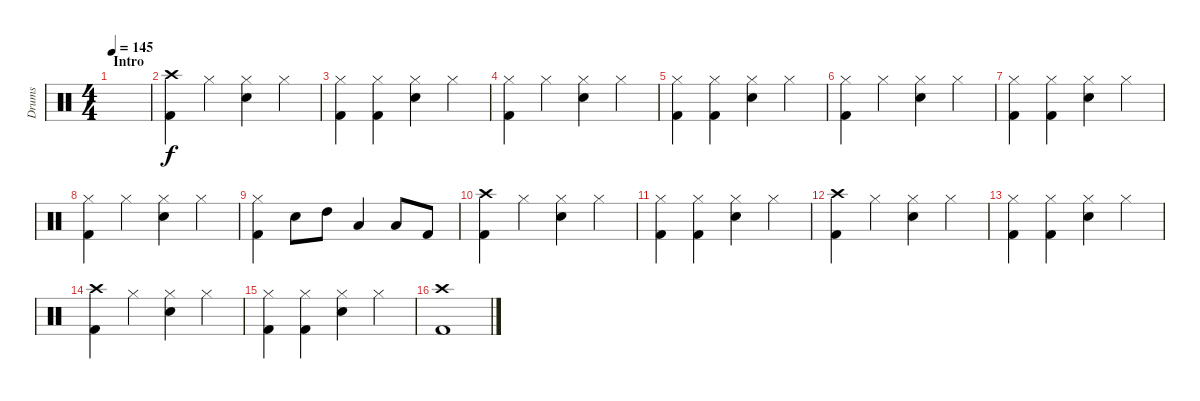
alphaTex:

\track ("Drums" "Drums") {instrument percussion}
\staff {score}
\articulation defaults
\ts (4 4)
\section ("" "Intro")
\tempo 145
\clef neutral
\ks c
|
("Crash high (hit)" "Kick (hit) 2").4 "Hi-Hat (closed)".4 ("Hi-Hat (closed)" "Electric Snare (hit)").4 "Hi-Hat (closed)".4 |
("Hi-Hat (closed)" "Kick (hit) 2").4 ("Hi-Hat (closed)" "Kick (hit) 2").4 ("Hi-Hat (closed)" "Electric Snare (hit)").4 "Hi-Hat (closed)".4 |
("Hi-Hat (closed)" "Kick (hit) 2").4 "Hi-Hat (closed)".4 ("Hi-Hat (closed)" "Electric Snare (hit)").4 "Hi-Hat (closed)".4 |
("Hi-Hat (closed)" "Kick (hit) 2").4 ("Hi-Hat (closed)" "Kick (hit) 2").4 ("Hi-Hat (closed)" "Electric Snare (hit)").4 "Hi-Hat (closed)".4 |
("Hi-Hat (closed)" "Kick (hit) 2").4 "Hi-Hat (closed)".4 ("Hi-Hat (closed)" "Electric Snare (hit)").4 "Hi-Hat (closed)".4 |
("Hi-Hat (closed)" "Kick (hit) 2").4 ("Hi-Hat (closed)" "Kick (hit) 2").4 ("Hi-Hat (closed)" "Electric Snare (hit)").4 "Hi-Hat (closed)".4 |
("Hi-Hat (closed)" "Kick (hit) 2").4 "Hi-Hat (closed)".4 ("Hi-Hat (closed)" "Electric Snare (hit)").4 "Hi-Hat (closed)".4 |
("Hi-Hat (closed)" "Kick (hit) 2").4 "Electric Snare (hit)".8 "High Tom (hit)".8 "Low Tom (hit)".4 "Low Tom (hit)".8 "Kick (hit) 2".8 |
("Crash high (hit)" "Kick (hit) 2").4 "Hi-Hat (closed)".4 ("Hi-Hat (closed)" "Electric Snare (hit)").4 "Hi-Hat (closed)".4 |
("Hi-Hat (closed)" "Kick (hit) 2").4 ("Hi-Hat (closed)" "Kick (hit) 2").4 ("Hi-Hat (closed)" "Electric Snare (hit)").4 "Hi-Hat (closed)".4 |
("Crash high (hit)" "Kick (hit) 2").4 "Hi-Hat (closed)".4 ("Hi-Hat (closed)" "Electric Snare (hit)").4 "Hi-Hat (closed)".4 |
("Hi-Hat (closed)" "Kick (hit) 2").4 ("Hi-Hat (closed)" "Kick (hit) 2").4 ("Hi-Hat (closed)" "Electric Snare (hit)").4 "Hi-Hat (closed)".4 |
("Crash high (hit)" "Kick (hit) 2").4 "Hi-Hat (closed)".4 ("Hi-Hat (closed)" "Electric Snare (hit)").4 "Hi-Hat (closed)".4 |
("Hi-Hat (closed)" "Kick (hit) 2").4 ("Hi-Hat (closed)" "Kick (hit) 2").4 ("Hi-Hat (closed)" "Electric Snare (hit)").4 "Hi-Hat (closed)".4 |
("Crash high (hit)" "Kick (hit) 2").1
